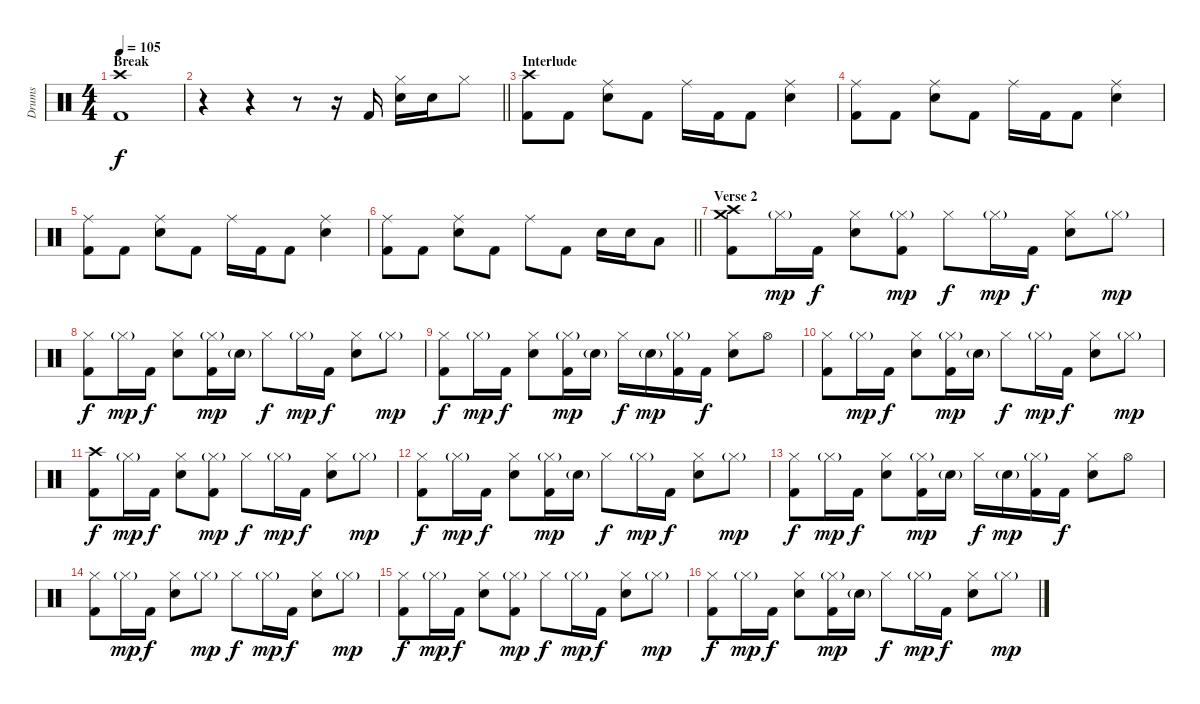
\track ("Drums" "Drums") {instrument percussion}
\staff {score}
\articulation defaults
\ts (4 4)
\section ("" "Break")
\tempo 105
\clef neutral
\ks c
("Crash high (hit)" "Kick (hit) 2").1{dy f} |
\barLineRight lightlight
r.4 r.4 r.8 r.16 "Kick (hit) 2".16 ("Hi-Hat (closed)" "Electric Snare (hit)").16 "Electric Snare (hit)".16 "Hi-Hat (closed)".8 |
\section ("" "Interlude")
("Crash high (hit)" "Kick (hit) 2").8 "Kick (hit) 2".8 ("Ride (middle)" "Electric Snare (hit)").8 "Kick (hit) 2".8 "Ride (middle)".16 "Kick (hit) 2".16 "Kick (hit) 2".8 ("Ride (middle)" "Electric Snare (hit)").4 |
("Ride (middle)" "Kick (hit) 2").8 "Kick (hit) 2".8 ("Ride (middle)" "Electric Snare (hit)").8 "Kick (hit) 2".8 "Ride (middle)".16 "Kick (hit) 2".16 "Kick (hit) 2".8 ("Ride (middle)" "Electric Snare (hit)").4 |
("Ride (middle)" "Kick (hit) 2").8 "Kick (hit) 2".8 ("Ride (middle)" "Electric Snare (hit)").8 "Kick (hit) 2".8 "Ride (middle)".16 "Kick (hit) 2".16 "Kick (hit) 2".8 ("Ride (middle)" "Electric Snare (hit)").4 |
\barLineRight lightlight
("Ride (middle)" "Kick (hit) 2").8 "Kick (hit) 2".8 ("Ride (middle)" "Electric Snare (hit)").8 "Kick (hit) 2".8 "Ride (middle)".8 "Kick (hit) 2".8 "Electric Snare (hit)".16 "Electric Snare (hit)".16 "Low Tom (hit)".8 |
\section ("" "Verse 2")
("Crash medium (hit)" "Crash high (hit)" "Kick (hit) 2").8 "Hi-Hat (closed)"{g}.16{dy mp} "Kick (hit) 2".16{dy f} ("Hi-Hat (closed)" "Electric Snare (hit)").8 ("Hi-Hat (closed)"{g} "Kick (hit) 2").8{dy mp} "Hi-Hat (closed)".8{dy f} "Hi-Hat (closed)"{g}.16{dy mp} "Kick (hit) 2".16{dy f} ("Hi-Hat (closed)" "Electric Snare (hit)").8 "Hi-Hat (closed)"{g}.8{dy mp} |
("Hi-Hat (closed)" "Kick (hit) 2").8{dy f} "Hi-Hat (closed)"{g}.16{dy mp} "Kick (hit) 2".16{dy f} ("Hi-Hat (closed)" "Electric Snare (hit)").8 ("Hi-Hat (closed)"{g} "Kick (hit) 2").16{dy mp} "Electric Snare (hit)"{g}.16 "Hi-Hat (closed)".8{dy f} "Hi-Hat (closed)"{g}.16{dy mp} "Kick (hit) 2".16{dy f} ("Hi-Hat (closed)" "Electric Snare (hit)").8 "Hi-Hat (closed)"{g}.8{dy mp} |
("Hi-Hat (closed)" "Kick (hit) 2").8{dy f} "Hi-Hat (closed)"{g}.16{dy mp} "Kick (hit) 2".16{dy f} ("Hi-Hat (closed)" "Electric Snare (hit)").8 ("Hi-Hat (closed)"{g} "Kick (hit) 2").16{dy mp} "Electric Snare (hit)"{g}.16 "Hi-Hat (closed)".16{dy f} "Electric Snare (hit)"{g}.16{dy mp} ("Hi-Hat (closed)"{g} "Kick (hit) 2").16 "Kick (hit) 2".16{dy f} ("Hi-Hat (closed)" "Electric Snare (hit)").8 "Hi-Hat (open)".8 |
("Hi-Hat (closed)" "Kick (hit) 2").8 "Hi-Hat (closed)"{g}.16{dy mp} "Kick (hit) 2".16{dy f} ("Hi-Hat (closed)" "Electric Snare (hit)").8 ("Hi-Hat (closed)"{g} "Kick (hit) 2").16{dy mp} "Electric Snare (hit)"{g}.16 "Hi-Hat (closed)".8{dy f} "Hi-Hat (closed)"{g}.16{dy mp} "Kick (hit) 2".16{dy f} ("Hi-Hat (closed)" "Electric Snare (hit)").8 "Hi-Hat (closed)"{g}.8{dy mp} |
("Crash high (hit)" "Kick (hit) 2").8{dy f} "Hi-Hat (closed)"{g}.16{dy mp} "Kick (hit) 2".16{dy f} ("Hi-Hat (closed)" "Electric Snare (hit)").8 ("Hi-Hat (closed)"{g} "Kick (hit) 2").8{dy mp} "Hi-Hat (closed)".8{dy f} "Hi-Hat (closed)"{g}.16{dy mp} "Kick (hit) 2".16{dy f} ("Hi-Hat (closed)" "Electric Snare (hit)").8 "Hi-Hat (closed)"{g}.8{dy mp} |
("Hi-Hat (closed)" "Kick (hit) 2").8{dy f} "Hi-Hat (closed)"{g}.16{dy mp} "Kick (hit) 2".16{dy f} ("Hi-Hat (closed)" "Electric Snare (hit)").8 ("Hi-Hat (closed)"{g} "Kick (hit) 2").16{dy mp} "Electric Snare (hit)"{g}.16 "Hi-Hat (closed)".8{dy f} "Hi-Hat (closed)"{g}.16{dy mp} "Kick (hit) 2".16{dy f} ("Hi-Hat (closed)" "Electric Snare (hit)").8 "Hi-Hat (closed)"{g}.8{dy mp} |
("Hi-Hat (closed)" "Kick (hit) 2").8{dy f} "Hi-Hat (closed)"{g}.16{dy mp} "Kick (hit) 2".16{dy f} ("Hi-Hat (closed)" "Electric Snare (hit)").8 ("Hi-Hat (closed)"{g} "Kick (hit) 2").16{dy mp} "Electric Snare (hit)"{g}.16 "Hi-Hat (closed)".16{dy f} "Electric Snare (hit)"{g}.16{dy mp} ("Hi-Hat (closed)"{g} "Kick (hit) 2").16 "Kick (hit) 2".16{dy f} ("Hi-Hat (closed)" "Electric Snare (hit)").8 "Hi-Hat (open)".8 |
("Hi-Hat (closed)" "Kick (hit) 2").8 "Hi-Hat (closed)"{g}.16{dy mp} "Kick (hit) 2".16{dy f} ("Hi-Hat (closed)" "Electric Snare (hit)").8 "Hi-Hat (closed)"{g}.8{dy mp} "Hi-Hat (closed)".8{dy f} "Hi-Hat (closed)"{g}.16{dy mp} "Kick (hit) 2".16{dy f} ("Hi-Hat (closed)" "Electric Snare (hit)").8 "Hi-Hat (closed)"{g}.8{dy mp} |
("Hi-Hat (closed)" "Kick (hit) 2").8{dy f} "Hi-Hat (closed)"{g}.16{dy mp} "Kick (hit) 2".16{dy f} ("Hi-Hat (closed)" "Electric Snare (hit)").8 ("Hi-Hat (closed)"{g} "Kick (hit) 2").8{dy mp} "Hi-Hat (closed)".8{dy f} "Hi-Hat (closed)"{g}.16{dy mp} "Kick (hit) 2".16{dy f} ("Hi-Hat (closed)" "Electric Snare (hit)").8 "Hi-Hat (closed)"{g}.8{dy mp} |
("Hi-Hat (closed)" "Kick (hit) 2").8{dy f} "Hi-Hat (closed)"{g}.16{dy mp} "Kick (hit) 2".16{dy f} ("Hi-Hat (closed)" "Electric Snare (hit)").8 ("Hi-Hat (closed)"{g} "Kick (hit) 2").16{dy mp} "Electric Snare (hit)"{g}.16 "Hi-Hat (closed)".8{dy f} "Hi-Hat (closed)"{g}.16{dy mp} "Kick (hit) 2".16{dy f} ("Hi-Hat (closed)" "Electric Snare (hit)").8 "Hi-Hat (closed)"{g}.8{dy mp}
